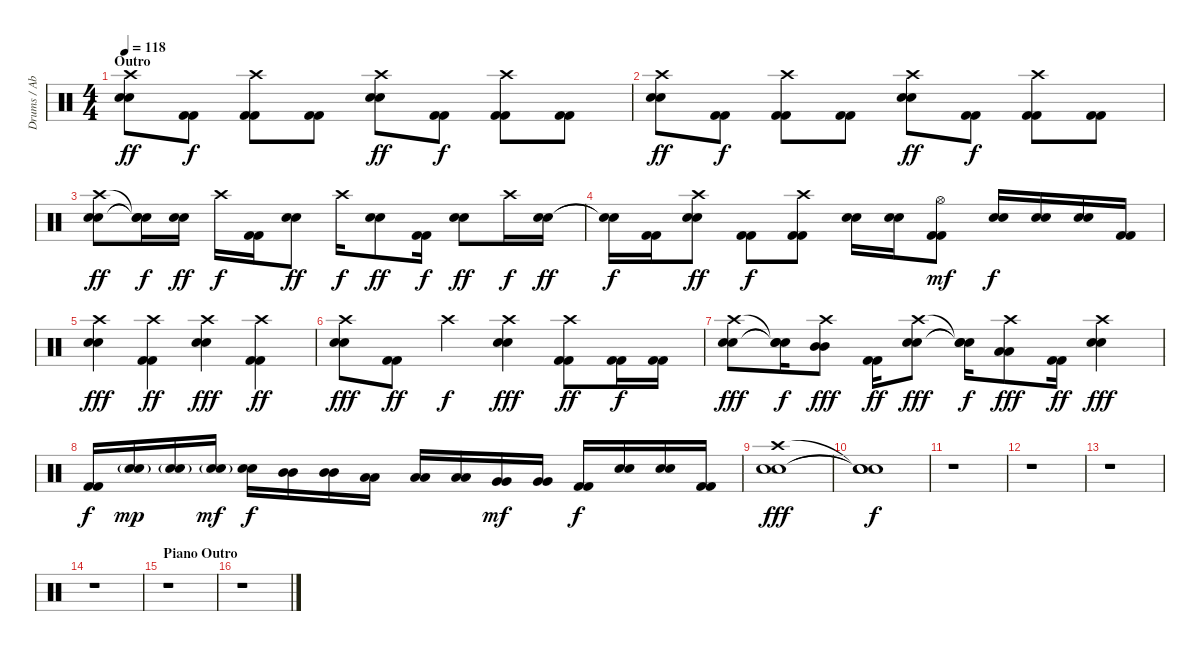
\track ("Drums / Abe Cunningham" "Drums / Ab") {instrument percussion}
\staff {score}
\articulation defaults
\ts (4 4)
\section ("" "Outro")
\tempo 118
\clef neutral
\ks c
("Crash high (hit)" "Electric Snare (hit)" "Electric Snare (hit)").8{dy ff} ("Kick (hit) 2" "Kick (hit) 2").8{dy f} ("Crash high (hit)" "Kick (hit) 2" "Kick (hit) 2").8 ("Kick (hit) 2" "Kick (hit) 2").8 ("Crash high (hit)" "Electric Snare (hit)" "Electric Snare (hit)").8{dy ff} ("Kick (hit) 2" "Kick (hit) 2").8{dy f} ("Crash high (hit)" "Kick (hit) 2" "Kick (hit) 2").8 ("Kick (hit) 2" "Kick (hit) 2").8 |
("Crash high (hit)" "Electric Snare (hit)" "Electric Snare (hit)").8{dy ff} ("Kick (hit) 2" "Kick (hit) 2").8{dy f} ("Crash high (hit)" "Kick (hit) 2" "Kick (hit) 2").8 ("Kick (hit) 2" "Kick (hit) 2").8 ("Crash high (hit)" "Electric Snare (hit)" "Electric Snare (hit)").8{dy ff} ("Kick (hit) 2" "Kick (hit) 2").8{dy f} ("Crash high (hit)" "Kick (hit) 2" "Kick (hit) 2").8 ("Kick (hit) 2" "Kick (hit) 2").8 |
("Crash high (hit)" "Electric Snare (hit)" "Electric Snare (hit)").8{dy ff} ("Snare (hit)"{t} "Snare (hit)"{t} "Snare (hit)"{t}).16{dy f} ("Electric Snare (hit)" "Electric Snare (hit)").16{dy ff} "Crash high (hit)".16{dy f} ("Kick (hit) 2" "Kick (hit) 2").16 ("Electric Snare (hit)" "Electric Snare (hit)").8{dy ff} "Crash high (hit)".16{dy f} ("Electric Snare (hit)" "Electric Snare (hit)").8{dy ff} ("Kick (hit) 2" "Kick (hit) 2").16{dy f} ("Electric Snare (hit)" "Electric Snare (hit)").8{dy ff} "Crash high (hit)".16{dy f} ("Electric Snare (hit)" "Electric Snare (hit)").16{dy ff} |
("Snare (hit)"{t} "Snare (hit)"{t}).16{dy f} ("Kick (hit) 2" "Kick (hit) 2").16 ("Crash high (hit)" "Electric Snare (hit)" "Electric Snare (hit)").8{dy ff} ("Kick (hit) 2" "Kick (hit) 2").8{dy f} ("Crash high (hit)" "Kick (hit) 2" "Kick (hit) 2").8 ("Electric Snare (hit)" "Electric Snare (hit)").16 ("Electric Snare (hit)" "Electric Snare (hit)").16 ("Hi-Hat (open)" "Kick (hit) 2" "Kick (hit) 2").8{dy mf} ("Electric Snare (hit)" "Electric Snare (hit)").16{dy f} ("Electric Snare (hit)" "Electric Snare (hit)").16 ("Electric Snare (hit)" "Electric Snare (hit)").16 ("Kick (hit) 2" "Kick (hit) 2").16 |
("Crash high (hit)" "Electric Snare (hit)" "Electric Snare (hit)").4{dy fff} ("Crash high (hit)" "Kick (hit) 2" "Kick (hit) 2").4{dy ff} ("Crash high (hit)" "Electric Snare (hit)" "Electric Snare (hit)").4{dy fff} ("Crash high (hit)" "Kick (hit) 2" "Kick (hit) 2").4{dy ff} |
("Crash high (hit)" "Electric Snare (hit)" "Electric Snare (hit)").8{dy fff} ("Kick (hit) 2" "Kick (hit) 2").8{dy ff} "Crash high (hit)".4{dy f} ("Crash high (hit)" "Electric Snare (hit)" "Electric Snare (hit)").4{dy fff} ("Crash high (hit)" "Kick (hit) 2" "Kick (hit) 2").8{dy ff} ("Kick (hit) 2" "Kick (hit) 2").16{dy f} ("Kick (hit) 2" "Kick (hit) 2").16 |
("Crash high (hit)" "Electric Snare (hit)" "Electric Snare (hit)").8{dy fff} ("Snare (hit)"{t} "Snare (hit)"{t} "Snare (hit)"{t}).16{dy f} ("Crash high (hit)" "Mid Tom (hit)" "Mid Tom (hit)").8{dy fff} ("Kick (hit) 2" "Kick (hit) 2").16{dy ff} ("Crash high (hit)" "Electric Snare (hit)" "Electric Snare (hit)").8{dy fff} ("Snare (hit)"{t} "Snare (hit)"{t} "Snare (hit)"{t}).16{dy f} ("Crash high (hit)" "Low Tom (hit)" "Low Tom (hit)").8{dy fff} ("Kick (hit) 2" "Kick (hit) 2").16{dy ff} ("Crash high (hit)" "Electric Snare (hit)" "Electric Snare (hit)").4{dy fff} |
("Kick (hit) 2" "Kick (hit) 2").16{dy f} ("Electric Snare (hit)"{g} "Electric Snare (hit)"{g}).16{dy mp} ("Electric Snare (hit)"{g} "Electric Snare (hit)"{g}).16 ("Electric Snare (hit)"{g} "Electric Snare (hit)"{g}).16{dy mf} ("Electric Snare (hit)" "Electric Snare (hit)").16{dy f} ("Mid Tom (hit)" "Mid Tom (hit)").16 ("Mid Tom (hit)" "Mid Tom (hit)").16 ("Low Tom (hit)" "Low Tom (hit)").16 ("Low Tom (hit)" "Low Tom (hit)").16 ("Low Tom (hit)" "Low Tom (hit)").16 ("Very Low Tom (hit)" "Very Low Tom (hit)").16{dy mf} ("Very Low Tom (hit)" "Very Low Tom (hit)").16 ("Kick (hit) 2" "Kick (hit) 2").16{dy f} ("Electric Snare (hit)" "Electric Snare (hit)").16 ("Electric Snare (hit)" "Electric Snare (hit)").16 ("Kick (hit) 2" "Kick (hit) 2").16 |
("Crash high (hit)" "Electric Snare (hit)" "Electric Snare (hit)").1{dy fff} |
("Snare (hit)"{t} "Snare (hit)"{t} "Snare (hit)"{t}).1{dy f} |
r.1 |
r.1 |
r.1 |
r.1 |
\section ("" "Piano Outro")
r.1 |
r.1
